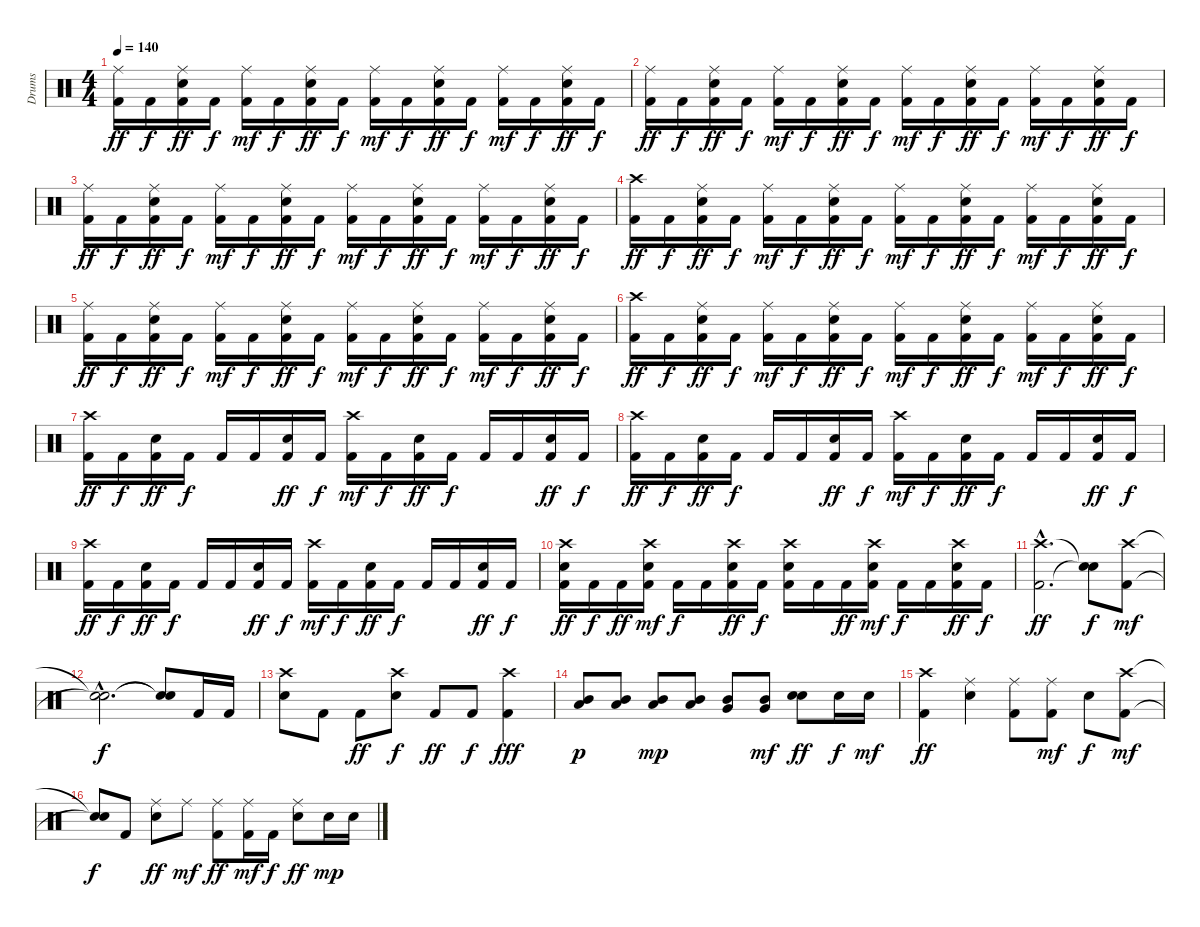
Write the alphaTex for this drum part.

\track ("Drums" "Drums") {instrument percussion}
\staff {score}
\articulation defaults
\ts (4 4)
\tempo 140
\clef neutral
\ks c
("Ride (middle)" "Kick (hit) 2").16{dy ff} "Kick (hit) 2".16{dy f} ("Ride (middle)" "Electric Snare (hit)" "Kick (hit) 2").16{dy ff} "Kick (hit) 2".16{dy f} ("Ride (middle)" "Kick (hit) 2").16{dy mf} "Kick (hit) 2".16{dy f} ("Ride (middle)" "Electric Snare (hit)" "Kick (hit) 2").16{dy ff} "Kick (hit) 2".16{dy f} ("Ride (middle)" "Kick (hit) 2").16{dy mf} "Kick (hit) 2".16{dy f} ("Ride (middle)" "Electric Snare (hit)" "Kick (hit) 2").16{dy ff} "Kick (hit) 2".16{dy f} ("Ride (middle)" "Kick (hit) 2").16{dy mf} "Kick (hit) 2".16{dy f} ("Ride (middle)" "Electric Snare (hit)" "Kick (hit) 2").16{dy ff} "Kick (hit) 2".16{dy f} |
("Ride (middle)" "Kick (hit) 2").16{dy ff} "Kick (hit) 2".16{dy f} ("Ride (middle)" "Electric Snare (hit)" "Kick (hit) 2").16{dy ff} "Kick (hit) 2".16{dy f} ("Ride (middle)" "Kick (hit) 2").16{dy mf} "Kick (hit) 2".16{dy f} ("Ride (middle)" "Electric Snare (hit)" "Kick (hit) 2").16{dy ff} "Kick (hit) 2".16{dy f} ("Ride (middle)" "Kick (hit) 2").16{dy mf} "Kick (hit) 2".16{dy f} ("Ride (middle)" "Electric Snare (hit)" "Kick (hit) 2").16{dy ff} "Kick (hit) 2".16{dy f} ("Ride (middle)" "Kick (hit) 2").16{dy mf} "Kick (hit) 2".16{dy f} ("Ride (middle)" "Electric Snare (hit)" "Kick (hit) 2").16{dy ff} "Kick (hit) 2".16{dy f} |
("Ride (middle)" "Kick (hit) 2").16{dy ff} "Kick (hit) 2".16{dy f} ("Ride (middle)" "Electric Snare (hit)" "Kick (hit) 2").16{dy ff} "Kick (hit) 2".16{dy f} ("Ride (middle)" "Kick (hit) 2").16{dy mf} "Kick (hit) 2".16{dy f} ("Ride (middle)" "Electric Snare (hit)" "Kick (hit) 2").16{dy ff} "Kick (hit) 2".16{dy f} ("Ride (middle)" "Kick (hit) 2").16{dy mf} "Kick (hit) 2".16{dy f} ("Ride (middle)" "Electric Snare (hit)" "Kick (hit) 2").16{dy ff} "Kick (hit) 2".16{dy f} ("Ride (middle)" "Kick (hit) 2").16{dy mf} "Kick (hit) 2".16{dy f} ("Ride (middle)" "Electric Snare (hit)" "Kick (hit) 2").16{dy ff} "Kick (hit) 2".16{dy f} |
("Crash high (hit)" "Kick (hit) 2").16{dy ff} "Kick (hit) 2".16{dy f} ("Ride (middle)" "Electric Snare (hit)" "Kick (hit) 2").16{dy ff} "Kick (hit) 2".16{dy f} ("Ride (middle)" "Kick (hit) 2").16{dy mf} "Kick (hit) 2".16{dy f} ("Ride (middle)" "Electric Snare (hit)" "Kick (hit) 2").16{dy ff} "Kick (hit) 2".16{dy f} ("Ride (middle)" "Kick (hit) 2").16{dy mf} "Kick (hit) 2".16{dy f} ("Ride (middle)" "Electric Snare (hit)" "Kick (hit) 2").16{dy ff} "Kick (hit) 2".16{dy f} ("Ride (middle)" "Kick (hit) 2").16{dy mf} "Kick (hit) 2".16{dy f} ("Ride (middle)" "Electric Snare (hit)" "Kick (hit) 2").16{dy ff} "Kick (hit) 2".16{dy f} |
("Ride (middle)" "Kick (hit) 2").16{dy ff} "Kick (hit) 2".16{dy f} ("Ride (middle)" "Electric Snare (hit)" "Kick (hit) 2").16{dy ff} "Kick (hit) 2".16{dy f} ("Ride (middle)" "Kick (hit) 2").16{dy mf} "Kick (hit) 2".16{dy f} ("Ride (middle)" "Electric Snare (hit)" "Kick (hit) 2").16{dy ff} "Kick (hit) 2".16{dy f} ("Ride (middle)" "Kick (hit) 2").16{dy mf} "Kick (hit) 2".16{dy f} ("Ride (middle)" "Electric Snare (hit)" "Kick (hit) 2").16{dy ff} "Kick (hit) 2".16{dy f} ("Ride (middle)" "Kick (hit) 2").16{dy mf} "Kick (hit) 2".16{dy f} ("Ride (middle)" "Electric Snare (hit)" "Kick (hit) 2").16{dy ff} "Kick (hit) 2".16{dy f} |
("Crash high (hit)" "Kick (hit) 2").16{dy ff} "Kick (hit) 2".16{dy f} ("Ride (middle)" "Electric Snare (hit)" "Kick (hit) 2").16{dy ff} "Kick (hit) 2".16{dy f} ("Ride (middle)" "Kick (hit) 2").16{dy mf} "Kick (hit) 2".16{dy f} ("Ride (middle)" "Electric Snare (hit)" "Kick (hit) 2").16{dy ff} "Kick (hit) 2".16{dy f} ("Ride (middle)" "Kick (hit) 2").16{dy mf} "Kick (hit) 2".16{dy f} ("Ride (middle)" "Electric Snare (hit)" "Kick (hit) 2").16{dy ff} "Kick (hit) 2".16{dy f} ("Ride (middle)" "Kick (hit) 2").16{dy mf} "Kick (hit) 2".16{dy f} ("Ride (middle)" "Electric Snare (hit)" "Kick (hit) 2").16{dy ff} "Kick (hit) 2".16{dy f} |
("Crash high (hit)" "Kick (hit) 2").16{dy ff} "Kick (hit) 2".16{dy f} ("Electric Snare (hit)" "Kick (hit) 2").16{dy ff} "Kick (hit) 2".16{dy f} "Kick (hit) 2".16 "Kick (hit) 2".16 ("Electric Snare (hit)" "Kick (hit) 2").16{dy ff} "Kick (hit) 2".16{dy f} ("Crash high (hit)" "Kick (hit) 2").16{dy mf} "Kick (hit) 2".16{dy f} ("Electric Snare (hit)" "Kick (hit) 2").16{dy ff} "Kick (hit) 2".16{dy f} "Kick (hit) 2".16 "Kick (hit) 2".16 ("Electric Snare (hit)" "Kick (hit) 2").16{dy ff} "Kick (hit) 2".16{dy f} |
("Crash high (hit)" "Kick (hit) 2").16{dy ff} "Kick (hit) 2".16{dy f} ("Electric Snare (hit)" "Kick (hit) 2").16{dy ff} "Kick (hit) 2".16{dy f} "Kick (hit) 2".16 "Kick (hit) 2".16 ("Electric Snare (hit)" "Kick (hit) 2").16{dy ff} "Kick (hit) 2".16{dy f} ("Crash high (hit)" "Kick (hit) 2").16{dy mf} "Kick (hit) 2".16{dy f} ("Electric Snare (hit)" "Kick (hit) 2").16{dy ff} "Kick (hit) 2".16{dy f} "Kick (hit) 2".16 "Kick (hit) 2".16 ("Electric Snare (hit)" "Kick (hit) 2").16{dy ff} "Kick (hit) 2".16{dy f} |
("Crash high (hit)" "Kick (hit) 2").16{dy ff} "Kick (hit) 2".16{dy f} ("Electric Snare (hit)" "Kick (hit) 2").16{dy ff} "Kick (hit) 2".16{dy f} "Kick (hit) 2".16 "Kick (hit) 2".16 ("Electric Snare (hit)" "Kick (hit) 2").16{dy ff} "Kick (hit) 2".16{dy f} ("Crash high (hit)" "Kick (hit) 2").16{dy mf} "Kick (hit) 2".16{dy f} ("Electric Snare (hit)" "Kick (hit) 2").16{dy ff} "Kick (hit) 2".16{dy f} "Kick (hit) 2".16 "Kick (hit) 2".16 ("Electric Snare (hit)" "Kick (hit) 2").16{dy ff} "Kick (hit) 2".16{dy f} |
("Crash high (hit)" "Electric Snare (hit)" "Kick (hit) 2").16{dy ff} "Kick (hit) 2".16{dy f} "Kick (hit) 2".16{dy ff} ("Crash high (hit)" "Electric Snare (hit)" "Kick (hit) 2").16{dy mf} "Kick (hit) 2".16{dy f} "Kick (hit) 2".16 ("Crash high (hit)" "Electric Snare (hit)" "Kick (hit) 2").16{dy ff} "Kick (hit) 2".16{dy f} ("Crash high (hit)" "Electric Snare (hit)" "Kick (hit) 2").16 "Kick (hit) 2".16 "Kick (hit) 2".16{dy ff} ("Crash high (hit)" "Electric Snare (hit)" "Kick (hit) 2").16{dy mf} "Kick (hit) 2".16{dy f} "Kick (hit) 2".16 ("Crash high (hit)" "Electric Snare (hit)" "Kick (hit) 2").16{dy ff} "Kick (hit) 2".16{dy f} |
("Crash high (hit)"{hac} "Kick (hit) 2"{hac}).2{d dy ff} ("Snare (hit)"{t} "Snare (hit)"{t}).8{dy f} ("Crash high (hit)" "Kick (hit) 2").8{dy mf} |
("Snare (hit)"{hac t} "Snare (hit)"{hac t}).2{d dy f} ("Snare (hit)"{t} "Snare (hit)"{t}).8 "Kick (hit) 2".16 "Kick (hit) 2".16 |
("Crash high (hit)" "Electric Snare (hit)").8 "Kick (hit) 2".8 "Kick (hit) 2".8{dy ff} ("Crash high (hit)" "Electric Snare (hit)").8{dy f} "Kick (hit) 2".8{dy ff} "Kick (hit) 2".8{dy f} ("Crash high (hit)" "Kick (hit) 2").4{dy fff} |
("Low Tom (hit)" "Mid Tom (hit)").8{dy p} ("Low Tom (hit)" "Mid Tom (hit)").8 ("Low Tom (hit)" "Mid Tom (hit)").8{dy mp} ("Low Tom (hit)" "Mid Tom (hit)").8 ("Very Low Tom (hit)" "Mid Tom (hit)").8 ("Very Low Tom (hit)" "Mid Tom (hit)").8{dy mf} ("Electric Snare (hit)" "Electric Snare (hit)").8{dy ff} "Electric Snare (hit)".16{dy f} "Electric Snare (hit)".16{dy mf} |
("Crash high (hit)" "Kick (hit) 2").4{dy ff} ("Ride (middle)" "Electric Snare (hit)").4 ("Ride (middle)" "Kick (hit) 2").8 ("Ride (middle)" "Kick (hit) 2").8{dy mf} "Electric Snare (hit)".8{dy f} ("Crash high (hit)" "Kick (hit) 2").8{dy mf} |
("Snare (hit)"{t} "Snare (hit)"{t}).8{dy f} "Kick (hit) 2".8 ("Ride (middle)" "Electric Snare (hit)").8{dy ff} "Ride (middle)".8{dy mf} ("Ride (middle)" "Kick (hit) 2").8{dy ff} ("Ride (middle)" "Kick (hit) 2").16{dy mf} "Kick (hit) 2".16{dy f} ("Ride (middle)" "Electric Snare (hit)").8{dy ff} "Electric Snare (hit)".16{dy mp} "Electric Snare (hit)".16
